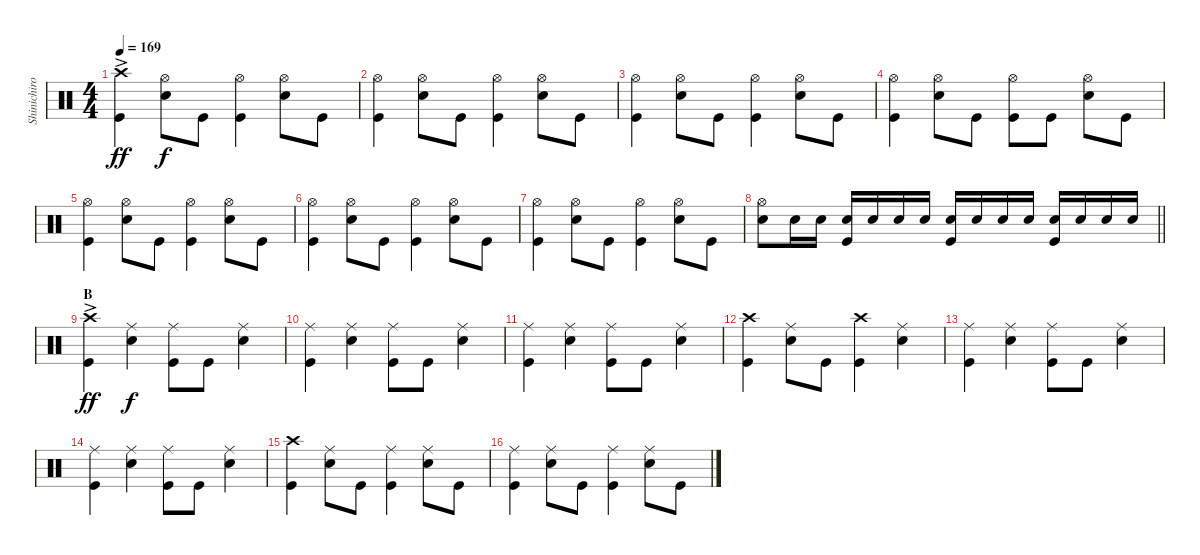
\track ("Shinichiro Sato drums" "Shinichiro") {instrument percussion}
\staff {score}
\articulation defaults
\ts (4 4)
\tempo 169
\clef neutral
\ks c
("Crash high (hit)"{ac} "Kick (hit)").4{dy ff} ("Hi-Hat (open)" "Snare (hit) 2").8{dy f} "Kick (hit)".8 ("Hi-Hat (open)" "Kick (hit)").4 ("Hi-Hat (open)" "Snare (hit) 2").8 "Kick (hit)".8 |
("Hi-Hat (open)" "Kick (hit)").4 ("Hi-Hat (open)" "Snare (hit) 2").8 "Kick (hit)".8 ("Hi-Hat (open)" "Kick (hit)").4 ("Hi-Hat (open)" "Snare (hit) 2").8 "Kick (hit)".8 |
("Hi-Hat (open)" "Kick (hit)").4 ("Hi-Hat (open)" "Snare (hit) 2").8 "Kick (hit)".8 ("Hi-Hat (open)" "Kick (hit)").4 ("Hi-Hat (open)" "Snare (hit) 2").8 "Kick (hit)".8 |
("Hi-Hat (open)" "Kick (hit)").4 ("Hi-Hat (open)" "Snare (hit) 2").8 "Kick (hit)".8 ("Hi-Hat (open)" "Kick (hit)").8 "Kick (hit)".8 ("Hi-Hat (open)" "Snare (hit) 2").8 "Kick (hit)".8 |
("Hi-Hat (open)" "Kick (hit)").4 ("Hi-Hat (open)" "Snare (hit) 2").8 "Kick (hit)".8 ("Hi-Hat (open)" "Kick (hit)").4 ("Hi-Hat (open)" "Snare (hit) 2").8 "Kick (hit)".8 |
("Hi-Hat (open)" "Kick (hit)").4 ("Hi-Hat (open)" "Snare (hit) 2").8 "Kick (hit)".8 ("Hi-Hat (open)" "Kick (hit)").4 ("Hi-Hat (open)" "Snare (hit) 2").8 "Kick (hit)".8 |
("Hi-Hat (open)" "Kick (hit)").4 ("Hi-Hat (open)" "Snare (hit) 2").8 "Kick (hit)".8 ("Hi-Hat (open)" "Kick (hit)").4 ("Hi-Hat (open)" "Snare (hit) 2").8 "Kick (hit)".8 |
\barLineRight lightlight
("Hi-Hat (open)" "Snare (hit) 2").8 "Snare (hit) 2".16 "Snare (hit) 2".16 ("Snare (hit) 2" "Kick (hit)").16 "Snare (hit) 2".16 "Snare (hit) 2".16 "Snare (hit) 2".16 ("Snare (hit) 2" "Kick (hit)").16 "Snare (hit) 2".16 "Snare (hit) 2".16 "Snare (hit) 2".16 ("Snare (hit) 2" "Kick (hit)").16 "Snare (hit) 2".16 "Snare (hit) 2".16 "Snare (hit) 2".16 |
\section ("" "B")
("Crash high (hit)"{ac} "Kick (hit)").4{dy ff} ("Ride (middle)" "Snare (hit) 2").4{dy f} ("Ride (middle)" "Kick (hit)").8 "Kick (hit)".8 ("Ride (middle)" "Snare (hit) 2").4 |
("Ride (middle)" "Kick (hit)").4 ("Ride (middle)" "Snare (hit) 2").4 ("Ride (middle)" "Kick (hit)").8 "Kick (hit)".8 ("Ride (middle)" "Snare (hit) 2").4 |
("Ride (middle)" "Kick (hit)").4 ("Ride (middle)" "Snare (hit) 2").4 ("Ride (middle)" "Kick (hit)").8 "Kick (hit)".8 ("Ride (middle)" "Snare (hit) 2").4 |
("Crash high (hit)" "Kick (hit)").4 ("Ride (middle)" "Snare (hit) 2").8 "Kick (hit)".8 ("Crash high (hit)" "Kick (hit)").4 ("Ride (middle)" "Snare (hit) 2").4 |
("Ride (middle)" "Kick (hit)").4 ("Ride (middle)" "Snare (hit) 2").4 ("Ride (middle)" "Kick (hit)").8 "Kick (hit)".8 ("Ride (middle)" "Snare (hit) 2").4 |
("Ride (middle)" "Kick (hit)").4 ("Ride (middle)" "Snare (hit) 2").4 ("Ride (middle)" "Kick (hit)").8 "Kick (hit)".8 ("Ride (middle)" "Snare (hit) 2").4 |
("Crash high (hit)" "Kick (hit)").4 ("Ride (middle)" "Snare (hit) 2").8 "Kick (hit)".8 ("Ride (middle)" "Kick (hit)").4 ("Ride (middle)" "Snare (hit) 2").8 "Kick (hit)".8 |
("Ride (middle)" "Kick (hit)").4 ("Ride (middle)" "Snare (hit) 2").8 "Kick (hit)".8 ("Ride (middle)" "Kick (hit)").4 ("Ride (middle)" "Snare (hit) 2").8 "Kick (hit)".8
